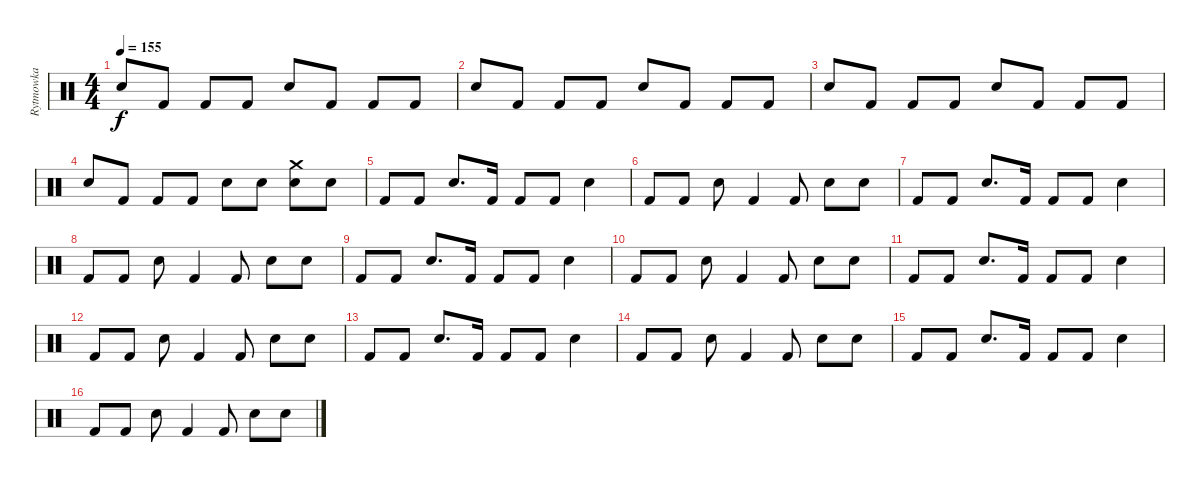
\track ("Rytmowka" "Rytmowka") {instrument percussion}
\staff {score}
\articulation defaults
\ts (4 4)
\tempo 155
\clef neutral
\ks c "Snare (hit) 2".8{dy f} "Kick (hit) 2".8 "Kick (hit) 2".8 "Kick (hit) 2".8 "Snare (hit) 2".8 "Kick (hit) 2".8 "Kick (hit) 2".8 "Kick (hit) 2".8
|
"Snare (hit) 2".8 "Kick (hit) 2".8 "Kick (hit) 2".8 "Kick (hit) 2".8 "Snare (hit) 2".8 "Kick (hit) 2".8 "Kick (hit) 2".8 "Kick (hit) 2".8 |
"Snare (hit) 2".8 "Kick (hit) 2".8 "Kick (hit) 2".8 "Kick (hit) 2".8 "Snare (hit) 2".8 "Kick (hit) 2".8 "Kick (hit) 2".8 "Kick (hit) 2".8 |
"Snare (hit) 2".8 "Kick (hit) 2".8 "Kick (hit) 2".8 "Kick (hit) 2".8 "Snare (hit) 2".8 "Snare (hit) 2".8 ("Crash medium (hit)" "Snare (hit) 2").8 "Snare (hit) 2".8 |
"Kick (hit) 2".8 "Kick (hit) 2".8 "Snare (hit) 2".8{d} "Kick (hit) 2".16 "Kick (hit) 2".8 "Kick (hit) 2".8 "Snare (hit) 2".4 |
"Kick (hit) 2".8 "Kick (hit) 2".8 "Snare (hit) 2".8 "Kick (hit) 2".4 "Kick (hit) 2".8 "Snare (hit) 2".8 "Snare (hit) 2".8 |
"Kick (hit) 2".8 "Kick (hit) 2".8 "Snare (hit) 2".8{d} "Kick (hit) 2".16 "Kick (hit) 2".8 "Kick (hit) 2".8 "Snare (hit) 2".4 |
"Kick (hit) 2".8 "Kick (hit) 2".8 "Snare (hit) 2".8 "Kick (hit) 2".4 "Kick (hit) 2".8 "Snare (hit) 2".8 "Snare (hit) 2".8 |
"Kick (hit) 2".8 "Kick (hit) 2".8 "Snare (hit) 2".8{d} "Kick (hit) 2".16 "Kick (hit) 2".8 "Kick (hit) 2".8 "Snare (hit) 2".4 |
"Kick (hit) 2".8 "Kick (hit) 2".8 "Snare (hit) 2".8 "Kick (hit) 2".4 "Kick (hit) 2".8 "Snare (hit) 2".8 "Snare (hit) 2".8 |
"Kick (hit) 2".8 "Kick (hit) 2".8 "Snare (hit) 2".8{d} "Kick (hit) 2".16 "Kick (hit) 2".8 "Kick (hit) 2".8 "Snare (hit) 2".4 |
"Kick (hit) 2".8 "Kick (hit) 2".8 "Snare (hit) 2".8 "Kick (hit) 2".4 "Kick (hit) 2".8 "Snare (hit) 2".8 "Snare (hit) 2".8 |
"Kick (hit) 2".8 "Kick (hit) 2".8 "Snare (hit) 2".8{d} "Kick (hit) 2".16 "Kick (hit) 2".8 "Kick (hit) 2".8 "Snare (hit) 2".4 |
"Kick (hit) 2".8 "Kick (hit) 2".8 "Snare (hit) 2".8 "Kick (hit) 2".4 "Kick (hit) 2".8 "Snare (hit) 2".8 "Snare (hit) 2".8 |
"Kick (hit) 2".8 "Kick (hit) 2".8 "Snare (hit) 2".8{d} "Kick (hit) 2".16 "Kick (hit) 2".8 "Kick (hit) 2".8 "Snare (hit) 2".4 |
"Kick (hit) 2".8 "Kick (hit) 2".8 "Snare (hit) 2".8 "Kick (hit) 2".4 "Kick (hit) 2".8 "Snare (hit) 2".8 "Snare (hit) 2".8
